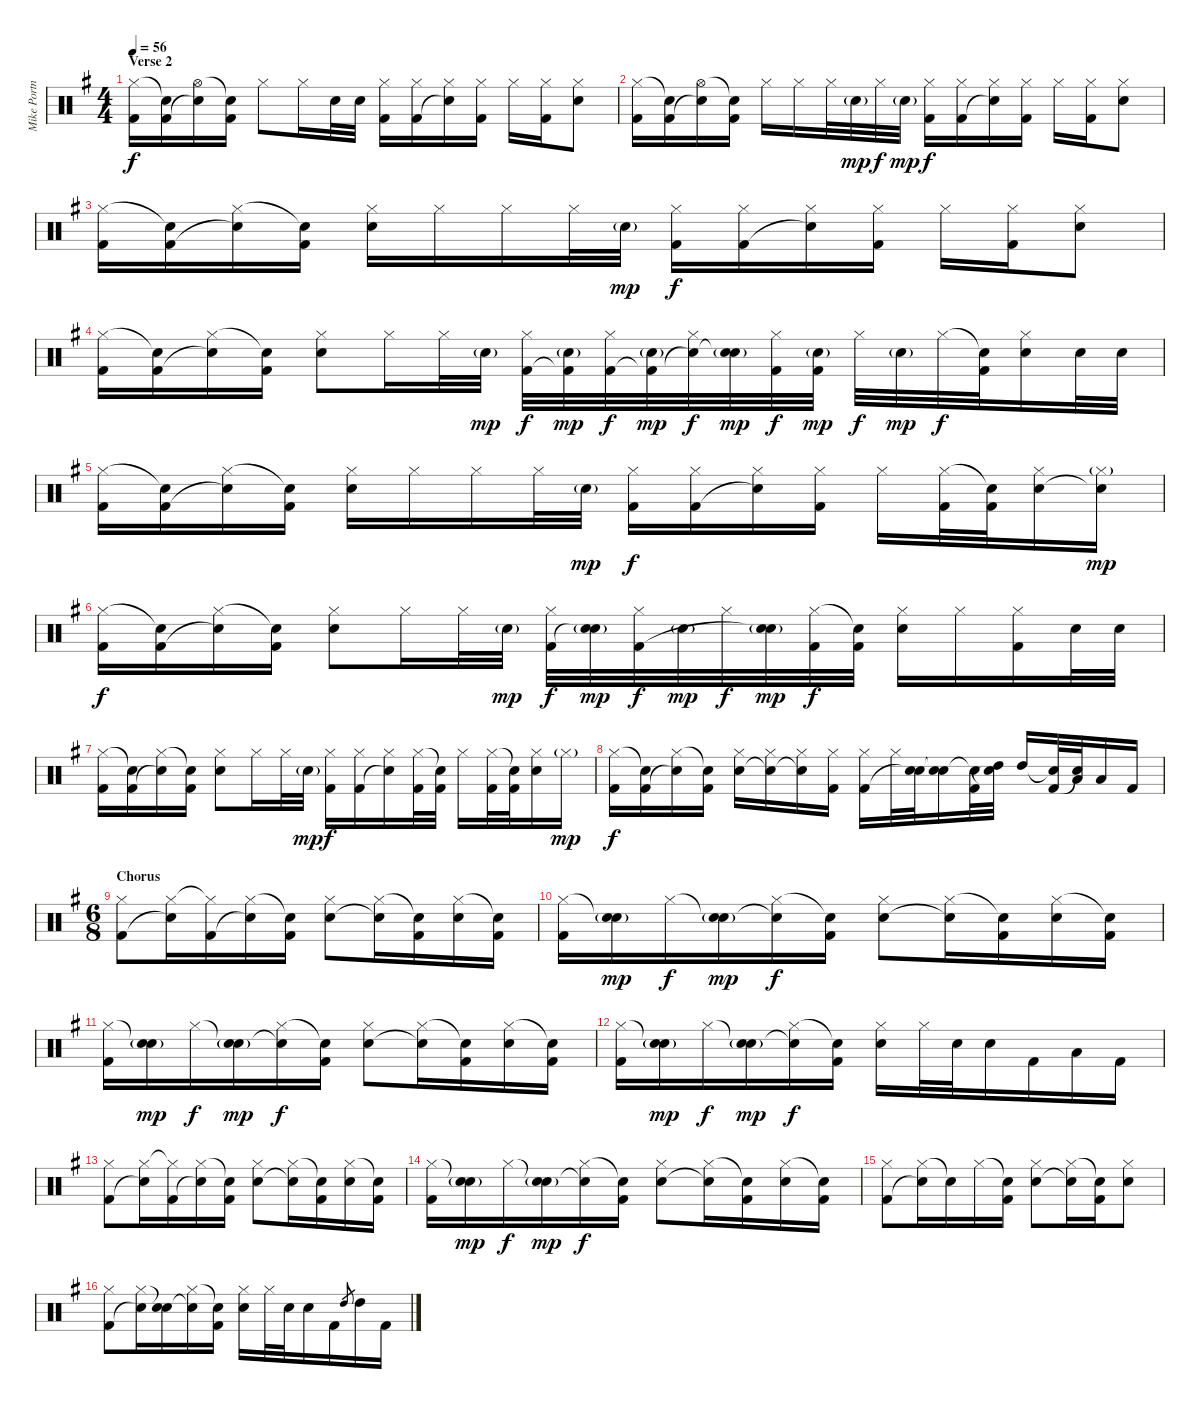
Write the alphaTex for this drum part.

\track ("Mike Portnoy" "Mike Portn") {instrument percussion}
\staff {score}
\articulation defaults
\ts (4 4)
\section ("" "Verse 2")
\tempo 56
\clef neutral
\ks g
("Hi-Hat (closed)" "Kick (hit) 2").16{dy f} ("Snare (hit)"{t} "Kick (hit) 2").16 ("Hi-Hat (open)" "Snare (hit)"{t}).16 ("Snare (hit)"{t} "Kick (hit) 2").16 "Hi-Hat (closed)".8 "Hi-Hat (closed)".16 "Snare (hit) 2".32 "Snare (hit) 2".32 ("Hi-Hat (closed)" "Kick (hit) 2").16 ("Hi-Hat (closed)" "Kick (hit) 2").16 ("Hi-Hat (closed)" "Snare (hit)"{t}).16 ("Hi-Hat (closed)" "Kick (hit) 2").16 "Hi-Hat (closed)".16 ("Hi-Hat (closed)" "Kick (hit) 2").16 ("Hi-Hat (closed)" "Snare (hit) 2").8 |
("Hi-Hat (closed)" "Kick (hit) 2").16 ("Snare (hit)"{t} "Kick (hit) 2").16 ("Hi-Hat (open)" "Snare (hit)"{t}).16 ("Snare (hit)"{t} "Kick (hit) 2").16 "Hi-Hat (closed)".16 "Hi-Hat (closed)".16 "Hi-Hat (closed)".32 "Snare (hit) 2"{g}.32{dy mp} "Hi-Hat (closed)".32{dy f} "Snare (hit) 2"{g}.32{dy mp} ("Hi-Hat (closed)" "Kick (hit) 2").16{dy f} ("Hi-Hat (closed)" "Kick (hit) 2").16 ("Hi-Hat (closed)" "Snare (hit)"{t}).16 ("Hi-Hat (closed)" "Kick (hit) 2").16 "Hi-Hat (closed)".16 ("Hi-Hat (closed)" "Kick (hit) 2").16 ("Hi-Hat (closed)" "Snare (hit) 2").8 |
("Hi-Hat (closed)" "Kick (hit) 2").16 ("Snare (hit)"{t} "Kick (hit) 2").16 ("Hi-Hat (closed)" "Snare (hit)"{t}).16 ("Snare (hit)"{t} "Kick (hit) 2").16 ("Hi-Hat (closed)" "Snare (hit) 2").16 "Hi-Hat (closed)".16 "Hi-Hat (closed)".16 "Hi-Hat (closed)".32 "Snare (hit) 2"{g}.32{dy mp} ("Hi-Hat (closed)" "Kick (hit) 2").16{dy f} ("Hi-Hat (closed)" "Kick (hit) 2").16 ("Hi-Hat (closed)" "Snare (hit)"{t}).16 ("Hi-Hat (closed)" "Kick (hit) 2").16 "Hi-Hat (closed)".16 ("Hi-Hat (closed)" "Kick (hit) 2").16 ("Hi-Hat (closed)" "Snare (hit) 2").8 |
("Hi-Hat (closed)" "Kick (hit) 2").16 ("Snare (hit)"{t} "Kick (hit) 2").16 ("Hi-Hat (closed)" "Snare (hit)"{t}).16 ("Snare (hit)"{t} "Kick (hit) 2").16 ("Hi-Hat (closed)" "Snare (hit) 2").8 "Hi-Hat (closed)".16 "Hi-Hat (closed)".32 "Snare (hit) 2"{g}.32{dy mp} ("Hi-Hat (closed)" "Kick (hit) 2").32{dy f} ("Snare (hit) 2"{g} "Kick (hit) 2"{t}).32{dy mp} ("Hi-Hat (closed)" "Kick (hit) 2").32{dy f} ("Snare (hit) 2"{g} "Kick (hit) 2"{t}).32{dy mp} ("Hi-Hat (closed)" "Snare (hit)"{t}).32{dy f} ("Snare (hit) 2"{g} "Snare (hit)"{t}).32{dy mp} ("Hi-Hat (closed)" "Kick (hit) 2").32{dy f} ("Snare (hit) 2"{g} "Kick (hit) 2").32{dy mp} "Hi-Hat (closed)".32{dy f} "Snare (hit) 2"{g}.32{dy mp} "Hi-Hat (closed)".32{dy f} ("Snare (hit)"{t} "Kick (hit) 2").32 ("Hi-Hat (closed)" "Snare (hit) 2").16 "Snare (hit) 2".32 "Snare (hit) 2".32 |
("Hi-Hat (closed)" "Kick (hit) 2").16 ("Snare (hit)"{t} "Kick (hit) 2").16 ("Hi-Hat (closed)" "Snare (hit)"{t}).16 ("Snare (hit)"{t} "Kick (hit) 2").16 ("Hi-Hat (closed)" "Snare (hit) 2").16 "Hi-Hat (closed)".16 "Hi-Hat (closed)".16 "Hi-Hat (closed)".32 "Snare (hit) 2"{g}.32{dy mp} ("Hi-Hat (closed)" "Kick (hit) 2").16{dy f} ("Hi-Hat (closed)" "Kick (hit) 2").16 ("Hi-Hat (closed)" "Snare (hit)"{t}).16 ("Hi-Hat (closed)" "Kick (hit) 2").16 "Hi-Hat (closed)".16 ("Hi-Hat (closed)" "Kick (hit) 2").32 ("Snare (hit)"{t} "Kick (hit) 2").32 ("Hi-Hat (closed)" "Snare (hit) 2").16 ("Hi-Hat (closed)"{g} "Snare (hit)"{t}).16{dy mp} |
("Hi-Hat (closed)" "Kick (hit) 2").16{dy f} ("Snare (hit)"{t} "Kick (hit) 2").16 ("Hi-Hat (closed)" "Snare (hit)"{t}).16 ("Snare (hit)"{t} "Kick (hit) 2").16 ("Hi-Hat (closed)" "Snare (hit) 2").8 "Hi-Hat (closed)".16 "Hi-Hat (closed)".32 "Snare (hit) 2"{g}.32{dy mp} ("Hi-Hat (closed)" "Kick (hit) 2").32{dy f} ("Snare (hit) 2"{g} "Snare (hit)"{t}).32{dy mp} ("Hi-Hat (closed)" "Kick (hit) 2").32{dy f} "Snare (hit) 2"{g}.32{dy mp} "Hi-Hat (closed)".32{dy f} ("Snare (hit) 2"{g} "Snare (hit)"{t}).32{dy mp} ("Hi-Hat (closed)" "Kick (hit) 2").32{dy f} ("Snare (hit)"{t} "Kick (hit) 2").32 ("Hi-Hat (closed)" "Snare (hit) 2").16 "Hi-Hat (closed)".16 ("Hi-Hat (closed)" "Kick (hit) 2").16 "Snare (hit) 2".32 "Snare (hit) 2".32 |
("Hi-Hat (closed)" "Kick (hit) 2").16 ("Snare (hit)"{t} "Kick (hit) 2").16 ("Hi-Hat (closed)" "Snare (hit)"{t}).16 ("Snare (hit)"{t} "Kick (hit) 2").16 ("Hi-Hat (closed)" "Snare (hit) 2").8 "Hi-Hat (closed)".16 "Hi-Hat (closed)".32 "Snare (hit) 2"{g}.32{dy mp} ("Hi-Hat (closed)" "Kick (hit) 2").16{dy f} ("Hi-Hat (closed)" "Kick (hit) 2").16 ("Hi-Hat (closed)" "Snare (hit)"{t}).16 ("Hi-Hat (closed)" "Kick (hit) 2").32 ("Snare (hit)"{t} "Kick (hit) 2").32 "Hi-Hat (closed)".16 ("Hi-Hat (closed)" "Kick (hit) 2").32 ("Snare (hit)"{t} "Kick (hit) 2").32 ("Hi-Hat (closed)" "Snare (hit) 2").16 "Hi-Hat (closed)"{g}.16{dy mp} |
("Hi-Hat (closed)" "Kick (hit) 2").16{dy f} ("Snare (hit)"{t} "Kick (hit) 2").16 ("Hi-Hat (closed)" "Snare (hit)"{t}).16 ("Snare (hit)"{t} "Kick (hit) 2").16 ("Hi-Hat (closed)" "Snare (hit) 2").16 ("Hi-Hat (closed)" "Snare (hit)"{t}).16 ("Hi-Hat (closed)" "Snare (hit)"{t}).16 ("Hi-Hat (closed)" "Kick (hit) 2").16 ("Hi-Hat (closed)" "Kick (hit) 2").16 "Hi-Hat (closed)".32 ("Snare (hit) 2" "Snare (hit)"{t}).32 ("Snare (hit) 2" "Snare (hit)"{t}).16 ("Snare (hit)"{t} "Kick (hit) 2").32 ("High Tom (hit)" "Snare (hit)"{t}).32 "High Tom (hit)".16 ("Snare (hit)"{t} "Kick (hit) 2").32 ("Low Tom (hit)" "Snare (hit)"{t}).32 "Low Tom (hit)".16 "Kick (hit) 2".16 |
\ts (6 8)
\section ("" "Chorus")
("Hi-Hat (closed)" "Kick (hit) 2").8 ("Hi-Hat (closed)" "Snare (hit)"{t}).16 ("Hi-Hat (closed)"{t} "Kick (hit) 2").16 ("Hi-Hat (closed)" "Snare (hit)"{t}).16 ("Snare (hit)"{t} "Kick (hit) 2").16 ("Hi-Hat (closed)" "Snare (hit) 2").8 ("Hi-Hat (closed)" "Snare (hit)"{t}).16 ("Snare (hit)"{t} "Kick (hit) 2").16 ("Hi-Hat (closed)" "Snare (hit) 2").16 ("Snare (hit)"{t} "Kick (hit) 2").16 |
("Hi-Hat (closed)" "Kick (hit) 2").16 ("Snare (hit)"{t} "Snare (hit) 2"{g}).16{dy mp} "Hi-Hat (closed)".16{dy f} ("Snare (hit)"{t} "Snare (hit) 2"{g}).16{dy mp} ("Hi-Hat (closed)" "Snare (hit)"{t}).16{dy f} ("Snare (hit)"{t} "Kick (hit) 2").16 ("Hi-Hat (closed)" "Snare (hit) 2").8 ("Hi-Hat (closed)" "Snare (hit)"{t}).16 ("Snare (hit)"{t} "Kick (hit) 2").16 ("Hi-Hat (closed)" "Snare (hit) 2").16 ("Snare (hit)"{t} "Kick (hit) 2").16 |
("Hi-Hat (closed)" "Kick (hit) 2").16 ("Snare (hit)"{t} "Snare (hit) 2"{g}).16{dy mp} "Hi-Hat (closed)".16{dy f} ("Snare (hit)"{t} "Snare (hit) 2"{g}).16{dy mp} ("Hi-Hat (closed)" "Snare (hit)"{t}).16{dy f} ("Snare (hit)"{t} "Kick (hit) 2").16 ("Hi-Hat (closed)" "Snare (hit) 2").8 ("Hi-Hat (closed)" "Snare (hit)"{t}).16 ("Snare (hit)"{t} "Kick (hit) 2").16 ("Hi-Hat (closed)" "Snare (hit) 2").16 ("Snare (hit)"{t} "Kick (hit) 2").16 |
("Hi-Hat (closed)" "Kick (hit) 2").16 ("Snare (hit)"{t} "Snare (hit) 2"{g}).16{dy mp} "Hi-Hat (closed)".16{dy f} ("Snare (hit)"{t} "Snare (hit) 2"{g}).16{dy mp} ("Hi-Hat (closed)" "Snare (hit)"{t}).16{dy f} ("Snare (hit)"{t} "Kick (hit) 2").16 ("Hi-Hat (closed)" "Snare (hit) 2").16 "Hi-Hat (closed)".32 "Snare (hit) 2".32 "Snare (hit) 2".16 "Kick (hit) 2".16 "Low Tom (hit)".16 "Kick (hit) 2".16 |
("Hi-Hat (closed)" "Kick (hit) 2").8 ("Hi-Hat (closed)" "Snare (hit)"{t}).16 ("Hi-Hat (closed)"{t} "Kick (hit) 2").16 ("Hi-Hat (closed)" "Snare (hit)"{t}).16 ("Snare (hit)"{t} "Kick (hit) 2").16 ("Hi-Hat (closed)" "Snare (hit) 2").8 ("Hi-Hat (closed)" "Snare (hit)"{t}).16 ("Snare (hit)"{t} "Kick (hit) 2").16 ("Hi-Hat (closed)" "Snare (hit) 2").16 ("Snare (hit)"{t} "Kick (hit) 2").16 |
("Hi-Hat (closed)" "Kick (hit) 2").16 ("Snare (hit)"{t} "Snare (hit) 2"{g}).16{dy mp} "Hi-Hat (closed)".16{dy f} ("Snare (hit)"{t} "Snare (hit) 2"{g}).16{dy mp} ("Hi-Hat (closed)" "Snare (hit)"{t}).16{dy f} ("Snare (hit)"{t} "Kick (hit) 2").16 ("Hi-Hat (closed)" "Snare (hit) 2").8 ("Hi-Hat (closed)" "Snare (hit)"{t}).16 ("Snare (hit)"{t} "Kick (hit) 2").16 ("Hi-Hat (closed)" "Snare (hit) 2").16 ("Snare (hit)"{t} "Kick (hit) 2").16 |
("Hi-Hat (closed)" "Kick (hit) 2").8 ("Hi-Hat (closed)" "Snare (hit)"{t}).16 "Snare (hit)"{t}.16 "Hi-Hat (closed)".16 ("Snare (hit)"{t} "Kick (hit) 2").16 ("Hi-Hat (closed)" "Snare (hit) 2").8 ("Hi-Hat (closed)" "Snare (hit)"{t}).16 ("Snare (hit)"{t} "Kick (hit) 2").16 ("Hi-Hat (closed)" "Snare (hit) 2").8 |
("Hi-Hat (closed)" "Kick (hit) 2").8 ("Hi-Hat (closed)" "Snare (hit)"{t}).16 ("Snare (hit)"{t} "Snare (hit) 2").16 ("Hi-Hat (closed)" "Snare (hit)"{t}).16 ("Snare (hit)"{t} "Kick (hit) 2").16 ("Hi-Hat (closed)" "Snare (hit) 2").16 "Hi-Hat (closed)".32 "Snare (hit) 2".32 "Snare (hit) 2".16 "Kick (hit) 2".16 "High Tom (hit)".8{gr} "High Tom (hit)".16 "Kick (hit) 2".16
